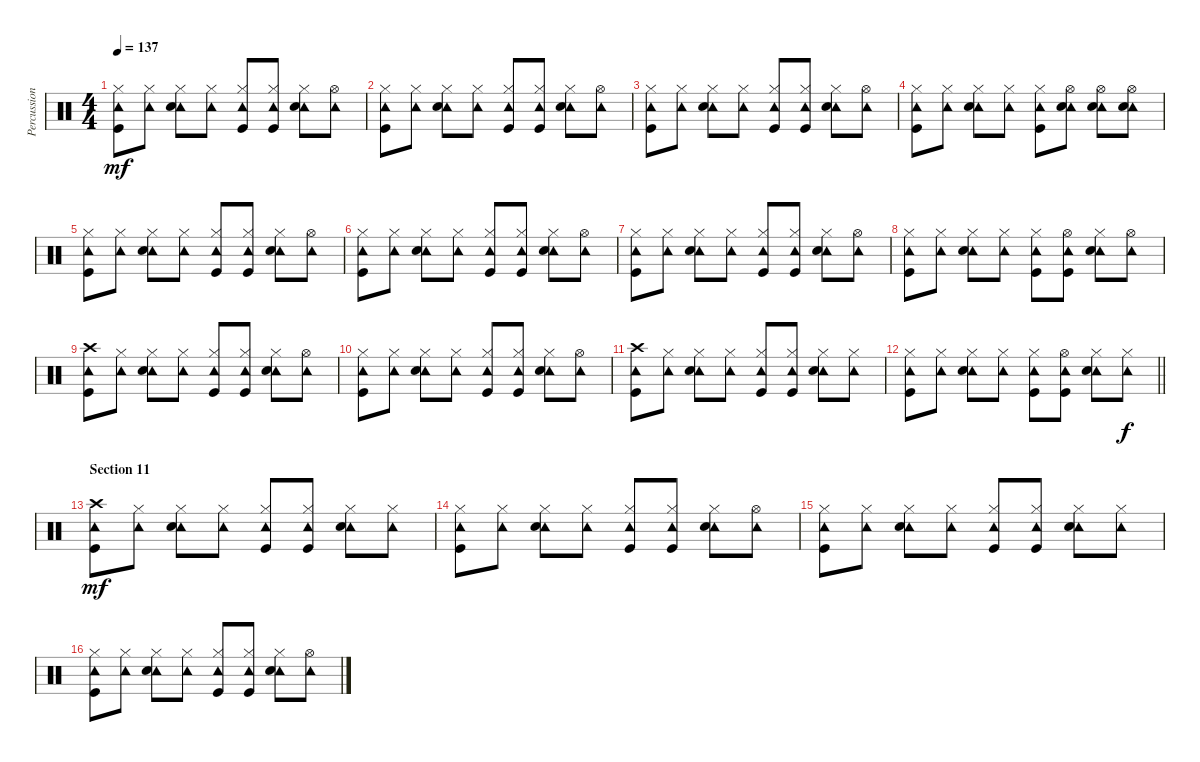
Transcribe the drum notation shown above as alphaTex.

\track ("Percussion" "Percussion") {instrument percussion}
\staff {score}
\articulation defaults
\ts (4 4)
\tempo 137
\clef neutral
\ks c
("Tambourine (hit)" "Hi-Hat (closed)" "Kick (hit)").8{dy mf} ("Tambourine (hit)" "Hi-Hat (closed)").8 ("Tambourine (hit)" "Hi-Hat (closed)" "Snare (hit) 2").8 ("Tambourine (hit)" "Hi-Hat (closed)").8 ("Tambourine (hit)" "Hi-Hat (closed)" "Kick (hit)").8 ("Tambourine (hit)" "Hi-Hat (closed)" "Kick (hit)").8 ("Tambourine (hit)" "Hi-Hat (closed)" "Snare (hit) 2").8 ("Tambourine (hit)" "Hi-Hat (open)").8 |
("Tambourine (hit)" "Hi-Hat (closed)" "Kick (hit)").8 ("Tambourine (hit)" "Hi-Hat (closed)").8 ("Tambourine (hit)" "Hi-Hat (closed)" "Snare (hit) 2").8 ("Tambourine (hit)" "Hi-Hat (closed)").8 ("Tambourine (hit)" "Hi-Hat (closed)" "Kick (hit)").8 ("Tambourine (hit)" "Hi-Hat (closed)" "Kick (hit)").8 ("Tambourine (hit)" "Hi-Hat (closed)" "Snare (hit) 2").8 ("Tambourine (hit)" "Hi-Hat (open)").8 |
("Tambourine (hit)" "Hi-Hat (closed)" "Kick (hit)").8 ("Tambourine (hit)" "Hi-Hat (closed)").8 ("Tambourine (hit)" "Hi-Hat (closed)" "Snare (hit) 2").8 ("Tambourine (hit)" "Hi-Hat (closed)").8 ("Tambourine (hit)" "Hi-Hat (closed)" "Kick (hit)").8 ("Tambourine (hit)" "Hi-Hat (closed)" "Kick (hit)").8 ("Tambourine (hit)" "Hi-Hat (closed)" "Snare (hit) 2").8 ("Tambourine (hit)" "Hi-Hat (open)").8 |
("Tambourine (hit)" "Hi-Hat (closed)" "Kick (hit)").8 ("Tambourine (hit)" "Hi-Hat (closed)").8 ("Tambourine (hit)" "Hi-Hat (closed)" "Snare (hit) 2").8 ("Tambourine (hit)" "Hi-Hat (closed)").8 ("Tambourine (hit)" "Hi-Hat (closed)" "Kick (hit)").8 ("Tambourine (hit)" "Hi-Hat (open)" "Snare (hit) 2").8 ("Tambourine (hit)" "Hi-Hat (open)" "Snare (hit) 2").8 ("Tambourine (hit)" "Hi-Hat (open)" "Snare (hit) 2").8 |
("Tambourine (hit)" "Hi-Hat (closed)" "Kick (hit)").8 ("Tambourine (hit)" "Hi-Hat (closed)").8 ("Tambourine (hit)" "Hi-Hat (closed)" "Snare (hit) 2").8 ("Tambourine (hit)" "Hi-Hat (closed)").8 ("Tambourine (hit)" "Hi-Hat (closed)" "Kick (hit)").8 ("Tambourine (hit)" "Hi-Hat (closed)" "Kick (hit)").8 ("Tambourine (hit)" "Hi-Hat (closed)" "Snare (hit) 2").8 ("Tambourine (hit)" "Hi-Hat (open)").8 |
("Tambourine (hit)" "Hi-Hat (closed)" "Kick (hit)").8 ("Tambourine (hit)" "Hi-Hat (closed)").8 ("Tambourine (hit)" "Hi-Hat (closed)" "Snare (hit) 2").8 ("Tambourine (hit)" "Hi-Hat (closed)").8 ("Tambourine (hit)" "Hi-Hat (closed)" "Kick (hit)").8 ("Tambourine (hit)" "Hi-Hat (closed)" "Kick (hit)").8 ("Tambourine (hit)" "Hi-Hat (closed)" "Snare (hit) 2").8 ("Tambourine (hit)" "Hi-Hat (open)").8 |
("Tambourine (hit)" "Hi-Hat (closed)" "Kick (hit)").8 ("Tambourine (hit)" "Hi-Hat (closed)").8 ("Tambourine (hit)" "Hi-Hat (closed)" "Snare (hit) 2").8 ("Tambourine (hit)" "Hi-Hat (closed)").8 ("Tambourine (hit)" "Hi-Hat (closed)" "Kick (hit)").8 ("Tambourine (hit)" "Hi-Hat (closed)" "Kick (hit)").8 ("Tambourine (hit)" "Hi-Hat (closed)" "Snare (hit) 2").8 ("Tambourine (hit)" "Hi-Hat (open)").8 |
("Tambourine (hit)" "Hi-Hat (closed)" "Kick (hit)").8 ("Tambourine (hit)" "Hi-Hat (closed)").8 ("Tambourine (hit)" "Hi-Hat (closed)" "Snare (hit) 2").8 ("Tambourine (hit)" "Hi-Hat (closed)").8 ("Tambourine (hit)" "Hi-Hat (closed)" "Kick (hit)").8 ("Tambourine (hit)" "Hi-Hat (open)" "Kick (hit)").8 ("Tambourine (hit)" "Hi-Hat (closed)" "Snare (hit) 2").8 ("Tambourine (hit)" "Hi-Hat (open)").8 |
("Tambourine (hit)" "Crash high (hit)" "Kick (hit)").8 ("Tambourine (hit)" "Hi-Hat (closed)").8 ("Tambourine (hit)" "Hi-Hat (closed)" "Snare (hit) 2").8 ("Tambourine (hit)" "Hi-Hat (closed)").8 ("Tambourine (hit)" "Hi-Hat (closed)" "Kick (hit)").8 ("Tambourine (hit)" "Hi-Hat (closed)" "Kick (hit)").8 ("Tambourine (hit)" "Hi-Hat (closed)" "Snare (hit) 2").8 ("Tambourine (hit)" "Hi-Hat (open)").8 |
("Tambourine (hit)" "Hi-Hat (closed)" "Kick (hit)").8 ("Tambourine (hit)" "Hi-Hat (closed)").8 ("Tambourine (hit)" "Hi-Hat (closed)" "Snare (hit) 2").8 ("Tambourine (hit)" "Hi-Hat (closed)").8 ("Tambourine (hit)" "Hi-Hat (closed)" "Kick (hit)").8 ("Tambourine (hit)" "Hi-Hat (closed)" "Kick (hit)").8 ("Tambourine (hit)" "Hi-Hat (closed)" "Snare (hit) 2").8 ("Tambourine (hit)" "Hi-Hat (open)").8 |
("Tambourine (hit)" "Crash high (hit)" "Kick (hit)").8 ("Tambourine (hit)" "Hi-Hat (closed)").8 ("Tambourine (hit)" "Hi-Hat (closed)" "Snare (hit) 2").8 ("Tambourine (hit)" "Hi-Hat (closed)").8 ("Tambourine (hit)" "Hi-Hat (closed)" "Kick (hit)").8 ("Tambourine (hit)" "Hi-Hat (closed)" "Kick (hit)").8 ("Tambourine (hit)" "Hi-Hat (closed)" "Snare (hit) 2").8 ("Tambourine (hit)" "Hi-Hat (closed)").8 |
\barLineRight lightlight
("Tambourine (hit)" "Hi-Hat (closed)" "Kick (hit)").8 ("Tambourine (hit)" "Hi-Hat (closed)").8 ("Tambourine (hit)" "Hi-Hat (closed)" "Snare (hit) 2").8 ("Tambourine (hit)" "Hi-Hat (closed)").8 ("Tambourine (hit)" "Hi-Hat (closed)" "Kick (hit)").8 ("Tambourine (hit)" "Hi-Hat (open)" "Kick (hit)").8 ("Tambourine (hit)" "Hi-Hat (closed)" "Snare (hit) 2").8 ("Tambourine (hit)" "Hi-Hat (closed)").8{dy f} |
\section ("" "Section 11")
("Tambourine (hit)" "Crash high (hit)" "Kick (hit)").8{dy mf} ("Tambourine (hit)" "Hi-Hat (closed)").8 ("Tambourine (hit)" "Hi-Hat (closed)" "Snare (hit) 2").8 ("Tambourine (hit)" "Hi-Hat (closed)").8 ("Tambourine (hit)" "Hi-Hat (closed)" "Kick (hit)").8 ("Tambourine (hit)" "Hi-Hat (closed)" "Kick (hit)").8 ("Tambourine (hit)" "Hi-Hat (closed)" "Snare (hit) 2").8 ("Tambourine (hit)" "Hi-Hat (closed)").8 |
("Tambourine (hit)" "Hi-Hat (closed)" "Kick (hit)").8 ("Tambourine (hit)" "Hi-Hat (closed)").8 ("Tambourine (hit)" "Hi-Hat (closed)" "Snare (hit) 2").8 ("Tambourine (hit)" "Hi-Hat (closed)").8 ("Tambourine (hit)" "Hi-Hat (closed)" "Kick (hit)").8 ("Tambourine (hit)" "Hi-Hat (closed)" "Kick (hit)").8 ("Tambourine (hit)" "Hi-Hat (closed)" "Snare (hit) 2").8 ("Tambourine (hit)" "Hi-Hat (open)").8 |
("Tambourine (hit)" "Hi-Hat (closed)" "Kick (hit)").8 ("Tambourine (hit)" "Hi-Hat (closed)").8 ("Tambourine (hit)" "Hi-Hat (closed)" "Snare (hit) 2").8 ("Tambourine (hit)" "Hi-Hat (closed)").8 ("Tambourine (hit)" "Hi-Hat (closed)" "Kick (hit)").8 ("Tambourine (hit)" "Hi-Hat (closed)" "Kick (hit)").8 ("Tambourine (hit)" "Hi-Hat (closed)" "Snare (hit) 2").8 ("Tambourine (hit)" "Hi-Hat (closed)").8 |
("Tambourine (hit)" "Hi-Hat (closed)" "Kick (hit)").8 ("Tambourine (hit)" "Hi-Hat (closed)").8 ("Tambourine (hit)" "Hi-Hat (closed)" "Snare (hit) 2").8 ("Tambourine (hit)" "Hi-Hat (closed)").8 ("Tambourine (hit)" "Hi-Hat (closed)" "Kick (hit)").8 ("Tambourine (hit)" "Hi-Hat (closed)" "Kick (hit)").8 ("Tambourine (hit)" "Hi-Hat (closed)" "Snare (hit) 2").8 ("Tambourine (hit)" "Hi-Hat (open)").8
